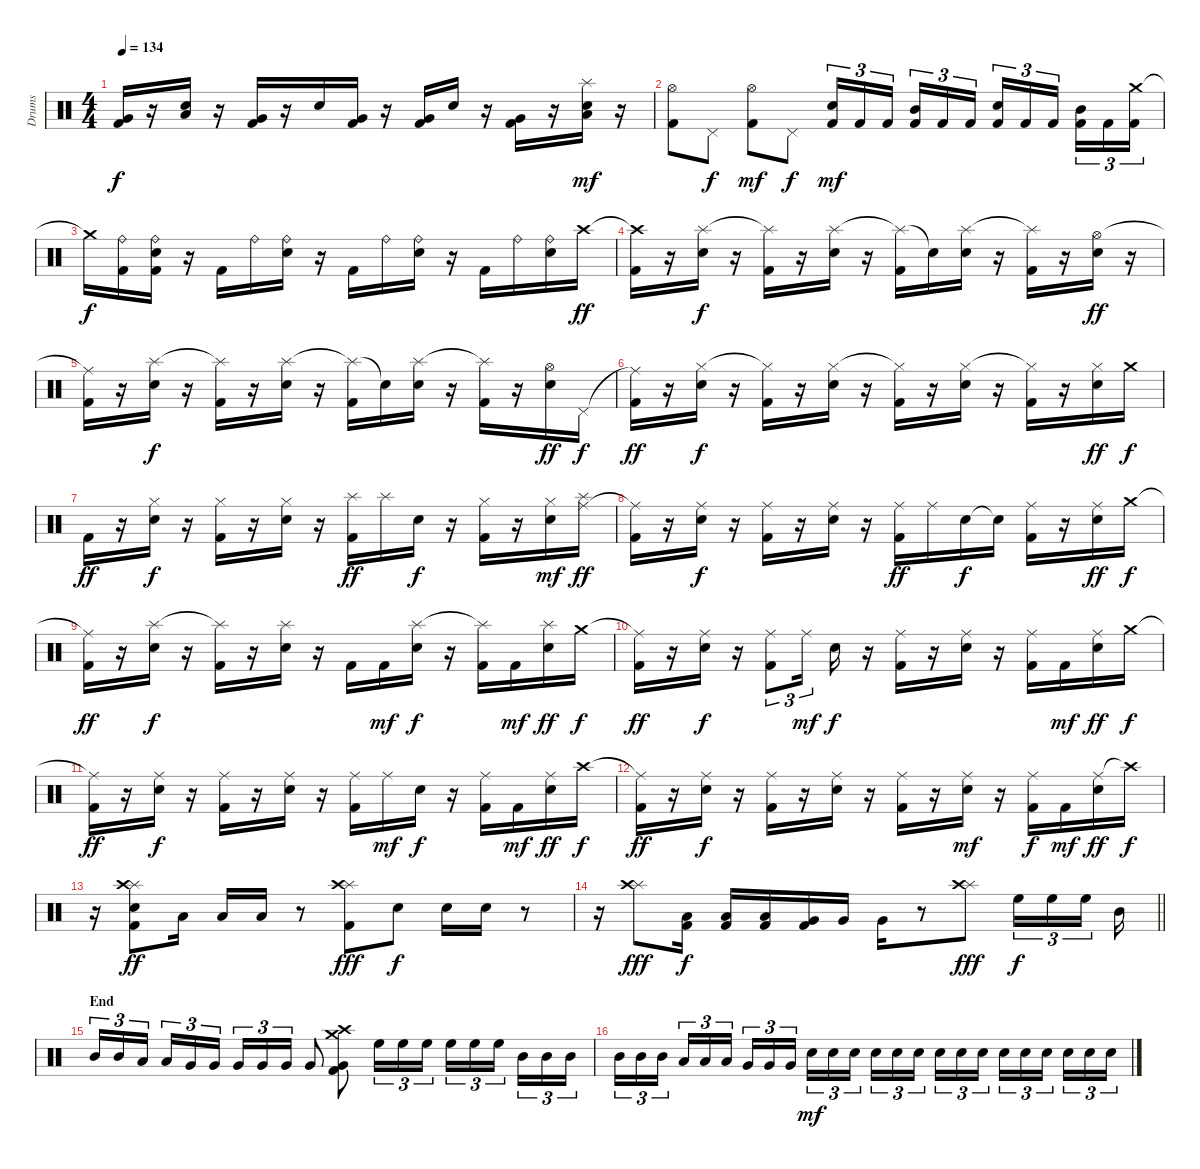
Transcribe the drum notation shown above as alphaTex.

\track ("Drums" "Drums") {instrument percussion}
\staff {score}
\articulation defaults
\ts (4 4)
\tempo 134
\clef neutral
\ks c
("Very Low Tom (hit)" "Kick (hit) 2").16{dy f} r.16 ("Low Tom (hit)" "Snare (hit) 2").16 r.16 ("Very Low Tom (hit)" "Kick (hit) 2").16 r.16 "Snare (hit) 2".16 ("Very Low Tom (hit)" "Kick (hit) 2").16 r.16 ("Very Low Tom (hit)" "Kick (hit) 2").16 "Snare (hit) 2".16 r.16 ("Very Low Tom (hit)" "Kick (hit) 2").16 r.16 ("Splash (hit)" "Low Tom (hit)" "Snare (hit) 2").16{dy mf} r.16 |
("Hi-Hat (open)" "Kick (hit) 2").8 "Pedal Hi-Hat (hit)".8{dy f} ("Hi-Hat (open)" "Kick (hit) 2").8{dy mf} "Pedal Hi-Hat (hit)".8{dy f} ("Snare (hit) 2" "Kick (hit) 2").16{tu (3 2) dy mf} "Kick (hit) 2".16{tu (3 2)} "Kick (hit) 2".16{tu (3 2) beam splitsecondary} ("Mid Tom (hit)" "Kick (hit) 2").16{tu (3 2)} "Kick (hit) 2".16{tu (3 2)} "Kick (hit) 2".16{tu (3 2)} ("Snare (hit) 2" "Kick (hit) 2").16{tu (3 2)} "Kick (hit) 2".16{tu (3 2)} "Kick (hit) 2".16{tu (3 2) beam splitsecondary} ("Mid Tom (hit)" "Kick (hit) 2").16{tu (3 2)} "Kick (hit) 2".16{tu (3 2)} ("Crash medium (hit)" "Kick (hit) 2").16{tu (3 2)} |
"Crash medium (hit)"{t}.16{dy f} ("Ride (bell)" "Kick (hit) 2").16 ("Ride (bell)" "Snare (hit) 2" "Kick (hit) 2").16 r.16 "Kick (hit) 2".16 "Ride (bell)".16 ("Ride (bell)" "Snare (hit) 2").16 r.16 "Kick (hit) 2".16 "Ride (bell)".16 ("Ride (bell)" "Snare (hit) 2").16 r.16 "Kick (hit) 2".16 "Ride (bell)".16 ("Ride (bell)" "Snare (hit) 2").16 "Crash high (hit)".16{dy ff} |
("Crash high (hit)"{t} "Kick (hit) 2").16 r.16 ("Splash (hit)" "Snare (hit) 2").16{dy f} r.16 ("Splash (hit)"{t} "Kick (hit) 2").16 r.16 ("Splash (hit)" "Snare (hit) 2").16 r.16 ("Splash (hit)"{t} "Kick (hit) 2").16 "Snare (hit)"{t}.16 ("Splash (hit)" "Snare (hit) 2").16 r.16 ("Splash (hit)"{t} "Kick (hit) 2").16 r.16 ("Hi-Hat (open)" "Snare (hit) 2").16{dy ff} r.16 |
("Ride (middle)"{t} "Kick (hit) 2").16 r.16 ("Splash (hit)" "Snare (hit) 2").16{dy f} r.16 ("Splash (hit)"{t} "Kick (hit) 2").16 r.16 ("Splash (hit)" "Snare (hit) 2").16 r.16 ("Splash (hit)"{t} "Kick (hit) 2").16 "Snare (hit)"{t}.16 ("Splash (hit)" "Snare (hit) 2").16 r.16 ("Splash (hit)"{t} "Kick (hit) 2").16 r.16 ("Hi-Hat (open)" "Snare (hit) 2").16{dy ff} "Pedal Hi-Hat (hit)".16{dy f} |
("Ride (middle)"{t} "Kick (hit) 2").16{dy ff} r.16 ("Hi-Hat (closed)" "Snare (hit) 2").16{dy f} r.16 ("Hi-Hat (closed)"{t} "Kick (hit) 2").16 r.16 ("Hi-Hat (closed)" "Snare (hit) 2").16 r.16 ("Hi-Hat (closed)"{t} "Kick (hit) 2").16 r.16 ("Hi-Hat (closed)" "Snare (hit) 2").16 r.16 ("Hi-Hat (closed)"{t} "Kick (hit) 2").16 r.16 ("Hi-Hat (closed)" "Snare (hit) 2").16{dy ff} "Crash medium (hit)".16{dy f} |
"Kick (hit) 2".16{dy ff} r.16 ("Hi-Hat (closed)" "Snare (hit) 2").16{dy f} r.16 ("Hi-Hat (closed)" "Kick (hit) 2").16 r.16 ("Hi-Hat (closed)" "Snare (hit) 2").16 r.16 ("Splash (hit)" "Kick (hit) 2").16{dy ff} "Splash (hit)".16 "Snare (hit) 2".16{dy f} r.16 ("Hi-Hat (closed)" "Kick (hit) 2").16 r.16 ("Hi-Hat (closed)" "Snare (hit) 2").16{dy mf} ("Ride (middle)" "Splash (hit)").16{dy ff} |
("Ride (middle)"{t} "Kick (hit) 2").16 r.16 ("Ride (middle)" "Snare (hit) 2").16{dy f} r.16 ("Ride (middle)" "Kick (hit) 2").16 r.16 ("Ride (middle)" "Snare (hit) 2").16 r.16 ("Ride (middle)" "Kick (hit) 2").16{dy ff} "Ride (middle)".16 "Snare (hit) 2".16{dy f} "Snare (hit)"{t}.16 ("Ride (middle)" "Kick (hit) 2").16 r.16 ("Ride (middle)" "Snare (hit) 2").16{dy ff} "Crash medium (hit)".16{dy f} |
("Ride (middle)"{t} "Kick (hit) 2").16{dy ff} r.16 ("Splash (hit)" "Snare (hit) 2").16{dy f} r.16 ("Splash (hit)"{t} "Kick (hit) 2").16 r.16 ("Splash (hit)" "Snare (hit) 2").16 r.16 "Kick (hit) 2".16 "Kick (hit) 2".16{dy mf} ("Splash (hit)" "Snare (hit) 2").16{dy f} r.16 ("Splash (hit)"{t} "Kick (hit) 2").16 "Kick (hit) 2".16{dy mf} ("Splash (hit)" "Snare (hit) 2").16{dy ff} "Crash medium (hit)".16{dy f} |
("Ride (middle)"{t} "Kick (hit) 2").16{dy ff} r.16 ("Ride (middle)" "Snare (hit) 2").16{dy f} r.16 ("Ride (middle)" "Kick (hit) 2").8{tu (3 2)} "Ride (middle)".16{tu (3 2) dy mf} "Snare (hit) 2".16{dy f} r.16 ("Ride (middle)" "Kick (hit) 2").16 r.16 ("Ride (middle)" "Snare (hit) 2").16 r.16 ("Ride (middle)" "Kick (hit) 2").16 "Kick (hit) 2".16{dy mf} ("Ride (middle)" "Snare (hit) 2").16{dy ff} "Crash medium (hit)".16{dy f} |
("Ride (middle)"{t} "Kick (hit) 2").16{dy ff} r.16 ("Ride (middle)" "Snare (hit) 2").16{dy f} r.16 ("Ride (middle)" "Kick (hit) 2").16 r.16 ("Ride (middle)" "Snare (hit) 2").16 r.16 ("Ride (middle)" "Kick (hit) 2").16 "Ride (middle)".16{dy mf} "Snare (hit) 2".16{dy f} r.16 ("Ride (middle)" "Kick (hit) 2").16 "Kick (hit) 2".16{dy mf} ("Ride (middle)" "Snare (hit) 2").16{dy ff} "Crash high (hit)".16{dy f} |
("Ride (middle)"{t} "Kick (hit) 2").16{dy ff} r.16 ("Ride (middle)" "Snare (hit) 2").16{dy f} r.16 ("Ride (middle)" "Kick (hit) 2").16 r.16 ("Ride (middle)" "Snare (hit) 2").16 r.16 ("Ride (middle)" "Kick (hit) 2").16 r.16 ("Ride (middle)" "Snare (hit) 2").16{dy mf} r.16 ("Ride (middle)" "Kick (hit) 2").16{dy f} "Kick (hit) 2".16{dy mf} ("Ride (middle)" "Snare (hit) 2").16{dy ff} "Crash high (hit)"{t}.16{dy f} |
r.16 ("Splash (hit)" "Crash high (hit)" "Snare (hit) 2" "Kick (hit) 2").8{dy ff} "Low Tom (hit)".16 "Low Tom (hit)".16 "Low Tom (hit)".16 r.8 ("Splash (hit)" "Crash high (hit)" "Kick (hit) 2").8{dy fff} "Snare (hit) 2".8{dy f} "Snare (hit) 2".16 "Snare (hit) 2".16 r.8 |
\barLineRight lightlight
r.16 ("Splash (hit)" "Crash high (hit)").8{dy fff} ("Low Tom (hit)" "Kick (hit) 2").16{dy f} ("Low Tom (hit)" "Kick (hit) 2").16 ("Low Tom (hit)" "Kick (hit) 2").16 ("Very Low Tom (hit)" "Kick (hit) 2").16 "Very Low Tom (hit)".16 "Very Low Tom (hit)".16 r.8 ("Splash (hit)" "Crash high (hit)").8{dy fff} "High Floor Tom (hit)".16{tu (3 2) dy f} "High Floor Tom (hit)".16{tu (3 2)} "High Floor Tom (hit)".16{tu (3 2) beam splitsecondary} "Mid Tom (hit)".16 |
\section ("" "End")
"Mid Tom (hit)".16{tu (3 2)} "Mid Tom (hit)".16{tu (3 2)} "Low Tom (hit)".16{tu (3 2) beam splitsecondary} "Low Tom (hit)".16{tu (3 2)} "Very Low Tom (hit)".16{tu (3 2)} "Very Low Tom (hit)".16{tu (3 2)} "Very Low Tom (hit)".16{tu (3 2)} "Very Low Tom (hit)".16{tu (3 2)} "Very Low Tom (hit)".16{tu (3 2)} "Very Low Tom (hit)".8 ("Crash medium (hit)" "Crash high (hit)" "Very Low Tom (hit)" "Kick (hit) 2").8 "High Floor Tom (hit)".16{tu (3 2)} "High Floor Tom (hit)".16{tu (3 2)} "High Floor Tom (hit)".16{tu (3 2)} "High Floor Tom (hit)".16{tu (3 2)} "High Floor Tom (hit)".16{tu (3 2)} "High Floor Tom (hit)".16{tu (3 2) beam splitsecondary} "Mid Tom (hit)".16{tu (3 2)} "Mid Tom (hit)".16{tu (3 2)} "Mid Tom (hit)".16{tu (3 2)} |
"Mid Tom (hit)".16{tu (3 2)} "Mid Tom (hit)".16{tu (3 2)} "Mid Tom (hit)".16{tu (3 2) beam splitsecondary} "Low Tom (hit)".16{tu (3 2)} "Low Tom (hit)".16{tu (3 2)} "Low Tom (hit)".16{tu (3 2)} "Very Low Tom (hit)".16{tu (3 2)} "Very Low Tom (hit)".16{tu (3 2)} "Very Low Tom (hit)".16{tu (3 2) beam splitsecondary} "Electric Snare (hit)".16{tu (3 2) dy mf} "Electric Snare (hit)".16{tu (3 2)} "Electric Snare (hit)".16{tu (3 2)} "Electric Snare (hit)".16{tu (3 2)} "Electric Snare (hit)".16{tu (3 2)} "Electric Snare (hit)".16{tu (3 2) beam splitsecondary} "Electric Snare (hit)".16{tu (3 2)} "Electric Snare (hit)".16{tu (3 2)} "Electric Snare (hit)".16{tu (3 2)} "Electric Snare (hit)".16{tu (3 2)} "Electric Snare (hit)".16{tu (3 2)} "Electric Snare (hit)".16{tu (3 2) beam splitsecondary} "Electric Snare (hit)".16{tu (3 2)} "Electric Snare (hit)".16{tu (3 2)} "Electric Snare (hit)".16{tu (3 2)}
